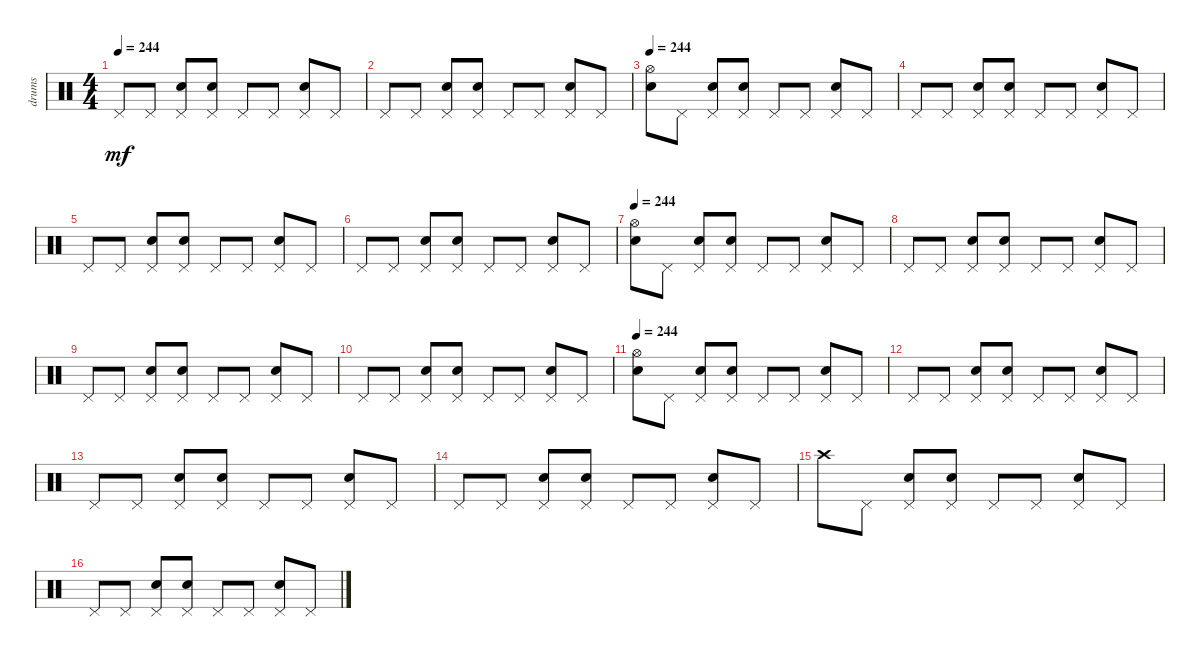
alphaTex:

\track ("drums" "drums") {instrument percussion}
\staff {score}
\articulation defaults
\ts (4 4)
\tempo 244
\clef neutral
\ks c "Pedal Hi-Hat (hit)".8{dy mf} "Pedal Hi-Hat (hit)".8
("Pedal Hi-Hat (hit)" "Snare (hit) 2").8 ("Pedal Hi-Hat (hit)" "Snare (hit) 2").8 "Pedal Hi-Hat (hit)".8 "Pedal Hi-Hat (hit)".8 ("Pedal Hi-Hat (hit)" "Snare (hit) 2").8 "Pedal Hi-Hat (hit)".8 |
"Pedal Hi-Hat (hit)".8 "Pedal Hi-Hat (hit)".8 ("Pedal Hi-Hat (hit)" "Snare (hit) 2").8 ("Pedal Hi-Hat (hit)" "Snare (hit) 2").8 "Pedal Hi-Hat (hit)".8 "Pedal Hi-Hat (hit)".8 ("Pedal Hi-Hat (hit)" "Snare (hit) 2").8 "Pedal Hi-Hat (hit)".8 |
\tempo 244
("Hi-Hat (open)" "Snare (hit) 2").8 "Pedal Hi-Hat (hit)".8 ("Pedal Hi-Hat (hit)" "Snare (hit) 2").8 ("Pedal Hi-Hat (hit)" "Snare (hit) 2").8 "Pedal Hi-Hat (hit)".8 "Pedal Hi-Hat (hit)".8 ("Pedal Hi-Hat (hit)" "Snare (hit) 2").8 "Pedal Hi-Hat (hit)".8 |
"Pedal Hi-Hat (hit)".8 "Pedal Hi-Hat (hit)".8 ("Pedal Hi-Hat (hit)" "Snare (hit) 2").8 ("Pedal Hi-Hat (hit)" "Snare (hit) 2").8 "Pedal Hi-Hat (hit)".8 "Pedal Hi-Hat (hit)".8 ("Pedal Hi-Hat (hit)" "Snare (hit) 2").8 "Pedal Hi-Hat (hit)".8 |
"Pedal Hi-Hat (hit)".8 "Pedal Hi-Hat (hit)".8 ("Pedal Hi-Hat (hit)" "Snare (hit) 2").8 ("Pedal Hi-Hat (hit)" "Snare (hit) 2").8 "Pedal Hi-Hat (hit)".8 "Pedal Hi-Hat (hit)".8 ("Pedal Hi-Hat (hit)" "Snare (hit) 2").8 "Pedal Hi-Hat (hit)".8 |
"Pedal Hi-Hat (hit)".8 "Pedal Hi-Hat (hit)".8 ("Pedal Hi-Hat (hit)" "Snare (hit) 2").8 ("Pedal Hi-Hat (hit)" "Snare (hit) 2").8 "Pedal Hi-Hat (hit)".8 "Pedal Hi-Hat (hit)".8 ("Pedal Hi-Hat (hit)" "Snare (hit) 2").8 "Pedal Hi-Hat (hit)".8 |
\tempo 244
("Hi-Hat (open)" "Snare (hit) 2").8 "Pedal Hi-Hat (hit)".8 ("Pedal Hi-Hat (hit)" "Snare (hit) 2").8 ("Pedal Hi-Hat (hit)" "Snare (hit) 2").8 "Pedal Hi-Hat (hit)".8 "Pedal Hi-Hat (hit)".8 ("Pedal Hi-Hat (hit)" "Snare (hit) 2").8 "Pedal Hi-Hat (hit)".8 |
"Pedal Hi-Hat (hit)".8 "Pedal Hi-Hat (hit)".8 ("Pedal Hi-Hat (hit)" "Snare (hit) 2").8 ("Pedal Hi-Hat (hit)" "Snare (hit) 2").8 "Pedal Hi-Hat (hit)".8 "Pedal Hi-Hat (hit)".8 ("Pedal Hi-Hat (hit)" "Snare (hit) 2").8 "Pedal Hi-Hat (hit)".8 |
"Pedal Hi-Hat (hit)".8 "Pedal Hi-Hat (hit)".8 ("Pedal Hi-Hat (hit)" "Snare (hit) 2").8 ("Pedal Hi-Hat (hit)" "Snare (hit) 2").8 "Pedal Hi-Hat (hit)".8 "Pedal Hi-Hat (hit)".8 ("Pedal Hi-Hat (hit)" "Snare (hit) 2").8 "Pedal Hi-Hat (hit)".8 |
"Pedal Hi-Hat (hit)".8 "Pedal Hi-Hat (hit)".8 ("Pedal Hi-Hat (hit)" "Snare (hit) 2").8 ("Pedal Hi-Hat (hit)" "Snare (hit) 2").8 "Pedal Hi-Hat (hit)".8 "Pedal Hi-Hat (hit)".8 ("Pedal Hi-Hat (hit)" "Snare (hit) 2").8 "Pedal Hi-Hat (hit)".8 |
\tempo 244
("Hi-Hat (open)" "Snare (hit) 2").8 "Pedal Hi-Hat (hit)".8 ("Pedal Hi-Hat (hit)" "Snare (hit) 2").8 ("Pedal Hi-Hat (hit)" "Snare (hit) 2").8 "Pedal Hi-Hat (hit)".8 "Pedal Hi-Hat (hit)".8 ("Pedal Hi-Hat (hit)" "Snare (hit) 2").8 "Pedal Hi-Hat (hit)".8 |
"Pedal Hi-Hat (hit)".8 "Pedal Hi-Hat (hit)".8 ("Pedal Hi-Hat (hit)" "Snare (hit) 2").8 ("Pedal Hi-Hat (hit)" "Snare (hit) 2").8 "Pedal Hi-Hat (hit)".8 "Pedal Hi-Hat (hit)".8 ("Pedal Hi-Hat (hit)" "Snare (hit) 2").8 "Pedal Hi-Hat (hit)".8 |
"Pedal Hi-Hat (hit)".8 "Pedal Hi-Hat (hit)".8 ("Pedal Hi-Hat (hit)" "Snare (hit) 2").8 ("Pedal Hi-Hat (hit)" "Snare (hit) 2").8 "Pedal Hi-Hat (hit)".8 "Pedal Hi-Hat (hit)".8 ("Pedal Hi-Hat (hit)" "Snare (hit) 2").8 "Pedal Hi-Hat (hit)".8 |
"Pedal Hi-Hat (hit)".8 "Pedal Hi-Hat (hit)".8 ("Pedal Hi-Hat (hit)" "Snare (hit) 2").8 ("Pedal Hi-Hat (hit)" "Snare (hit) 2").8 "Pedal Hi-Hat (hit)".8 "Pedal Hi-Hat (hit)".8 ("Pedal Hi-Hat (hit)" "Snare (hit) 2").8 "Pedal Hi-Hat (hit)".8 |
"Crash high (hit)".8 "Pedal Hi-Hat (hit)".8 ("Pedal Hi-Hat (hit)" "Snare (hit) 2").8 ("Pedal Hi-Hat (hit)" "Snare (hit) 2").8 "Pedal Hi-Hat (hit)".8 "Pedal Hi-Hat (hit)".8 ("Pedal Hi-Hat (hit)" "Snare (hit) 2").8 "Pedal Hi-Hat (hit)".8 |
"Pedal Hi-Hat (hit)".8 "Pedal Hi-Hat (hit)".8 ("Pedal Hi-Hat (hit)" "Snare (hit) 2").8 ("Pedal Hi-Hat (hit)" "Snare (hit) 2").8 "Pedal Hi-Hat (hit)".8 "Pedal Hi-Hat (hit)".8 ("Pedal Hi-Hat (hit)" "Snare (hit) 2").8 "Pedal Hi-Hat (hit)".8
